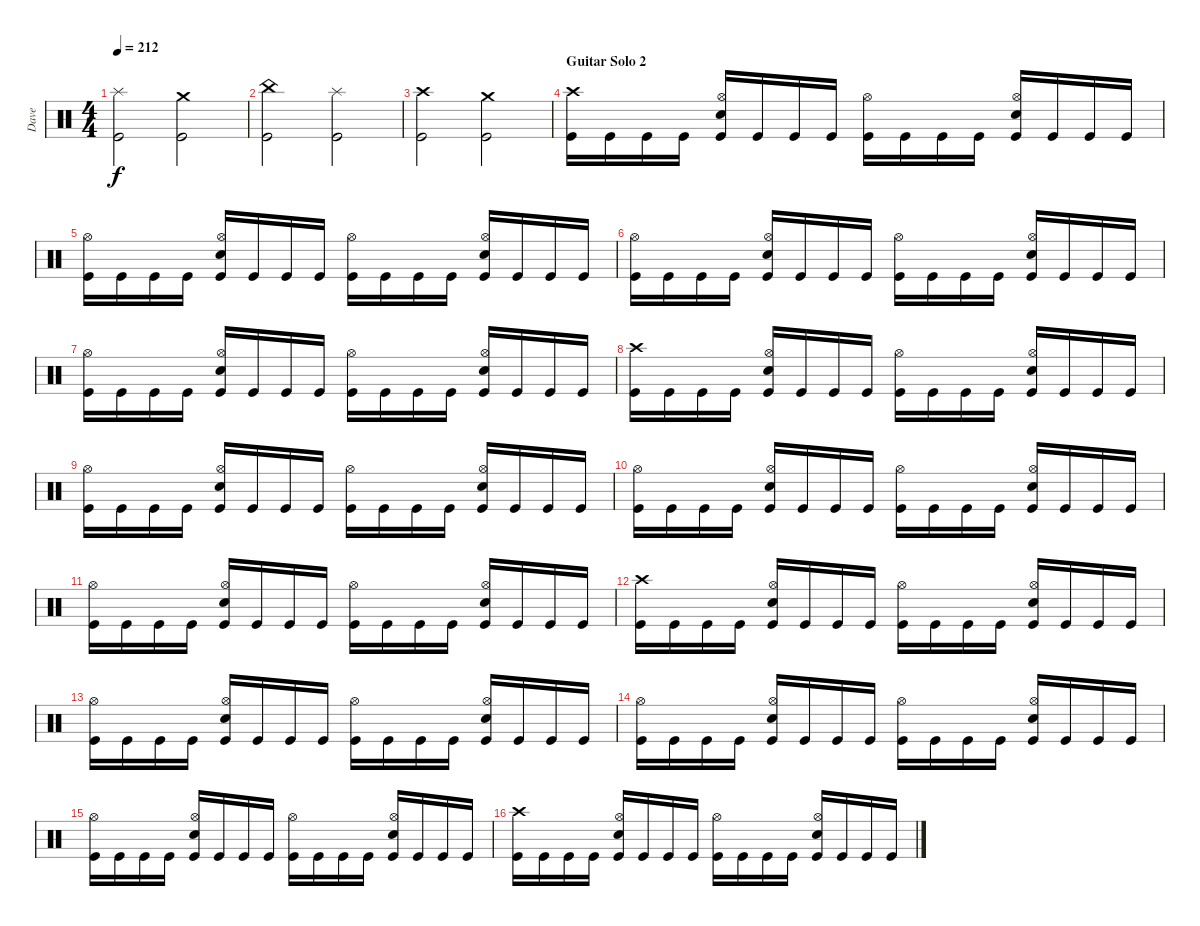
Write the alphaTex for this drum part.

\track ("Dave" "Dave") {instrument percussion}
\staff {score}
\articulation defaults
\ts (4 4)
\tempo 212
\clef neutral
\ks c
("Splash (hit)" "Kick (hit)").2{dy f} ("Crash medium (hit)" "Kick (hit)").2 |
("China (hit)" "Kick (hit)").2 ("Splash (hit)" "Kick (hit)").2 |
("Crash high (hit)" "Kick (hit)").2 ("Crash medium (hit)" "Kick (hit)").2 |
\section ("" "Guitar Solo 2")
("Crash high (hit)" "Kick (hit)").16 "Kick (hit)".16 "Kick (hit)".16 "Kick (hit)".16 ("Hi-Hat (open)" "Snare (hit) 2" "Kick (hit)").16 "Kick (hit)".16 "Kick (hit)".16 "Kick (hit)".16 ("Hi-Hat (open)" "Kick (hit)").16 "Kick (hit)".16 "Kick (hit)".16 "Kick (hit)".16 ("Hi-Hat (open)" "Snare (hit) 2" "Kick (hit)").16 "Kick (hit)".16 "Kick (hit)".16 "Kick (hit)".16 |
("Hi-Hat (open)" "Kick (hit)").16 "Kick (hit)".16 "Kick (hit)".16 "Kick (hit)".16 ("Hi-Hat (open)" "Snare (hit) 2" "Kick (hit)").16 "Kick (hit)".16 "Kick (hit)".16 "Kick (hit)".16 ("Hi-Hat (open)" "Kick (hit)").16 "Kick (hit)".16 "Kick (hit)".16 "Kick (hit)".16 ("Hi-Hat (open)" "Snare (hit) 2" "Kick (hit)").16 "Kick (hit)".16 "Kick (hit)".16 "Kick (hit)".16 |
("Hi-Hat (open)" "Kick (hit)").16 "Kick (hit)".16 "Kick (hit)".16 "Kick (hit)".16 ("Hi-Hat (open)" "Snare (hit) 2" "Kick (hit)").16 "Kick (hit)".16 "Kick (hit)".16 "Kick (hit)".16 ("Hi-Hat (open)" "Kick (hit)").16 "Kick (hit)".16 "Kick (hit)".16 "Kick (hit)".16 ("Hi-Hat (open)" "Snare (hit) 2" "Kick (hit)").16 "Kick (hit)".16 "Kick (hit)".16 "Kick (hit)".16 |
("Hi-Hat (open)" "Kick (hit)").16 "Kick (hit)".16 "Kick (hit)".16 "Kick (hit)".16 ("Hi-Hat (open)" "Snare (hit) 2" "Kick (hit)").16 "Kick (hit)".16 "Kick (hit)".16 "Kick (hit)".16 ("Hi-Hat (open)" "Kick (hit)").16 "Kick (hit)".16 "Kick (hit)".16 "Kick (hit)".16 ("Hi-Hat (open)" "Snare (hit) 2" "Kick (hit)").16 "Kick (hit)".16 "Kick (hit)".16 "Kick (hit)".16 |
("Crash high (hit)" "Kick (hit)").16 "Kick (hit)".16 "Kick (hit)".16 "Kick (hit)".16 ("Hi-Hat (open)" "Snare (hit) 2" "Kick (hit)").16 "Kick (hit)".16 "Kick (hit)".16 "Kick (hit)".16 ("Hi-Hat (open)" "Kick (hit)").16 "Kick (hit)".16 "Kick (hit)".16 "Kick (hit)".16 ("Hi-Hat (open)" "Snare (hit) 2" "Kick (hit)").16 "Kick (hit)".16 "Kick (hit)".16 "Kick (hit)".16 |
("Hi-Hat (open)" "Kick (hit)").16 "Kick (hit)".16 "Kick (hit)".16 "Kick (hit)".16 ("Hi-Hat (open)" "Snare (hit) 2" "Kick (hit)").16 "Kick (hit)".16 "Kick (hit)".16 "Kick (hit)".16 ("Hi-Hat (open)" "Kick (hit)").16 "Kick (hit)".16 "Kick (hit)".16 "Kick (hit)".16 ("Hi-Hat (open)" "Snare (hit) 2" "Kick (hit)").16 "Kick (hit)".16 "Kick (hit)".16 "Kick (hit)".16 |
("Hi-Hat (open)" "Kick (hit)").16 "Kick (hit)".16 "Kick (hit)".16 "Kick (hit)".16 ("Hi-Hat (open)" "Snare (hit) 2" "Kick (hit)").16 "Kick (hit)".16 "Kick (hit)".16 "Kick (hit)".16 ("Hi-Hat (open)" "Kick (hit)").16 "Kick (hit)".16 "Kick (hit)".16 "Kick (hit)".16 ("Hi-Hat (open)" "Snare (hit) 2" "Kick (hit)").16 "Kick (hit)".16 "Kick (hit)".16 "Kick (hit)".16 |
("Hi-Hat (open)" "Kick (hit)").16 "Kick (hit)".16 "Kick (hit)".16 "Kick (hit)".16 ("Hi-Hat (open)" "Snare (hit) 2" "Kick (hit)").16 "Kick (hit)".16 "Kick (hit)".16 "Kick (hit)".16 ("Hi-Hat (open)" "Kick (hit)").16 "Kick (hit)".16 "Kick (hit)".16 "Kick (hit)".16 ("Hi-Hat (open)" "Snare (hit) 2" "Kick (hit)").16 "Kick (hit)".16 "Kick (hit)".16 "Kick (hit)".16 |
("Crash high (hit)" "Kick (hit)").16 "Kick (hit)".16 "Kick (hit)".16 "Kick (hit)".16 ("Hi-Hat (open)" "Snare (hit) 2" "Kick (hit)").16 "Kick (hit)".16 "Kick (hit)".16 "Kick (hit)".16 ("Hi-Hat (open)" "Kick (hit)").16 "Kick (hit)".16 "Kick (hit)".16 "Kick (hit)".16 ("Hi-Hat (open)" "Snare (hit) 2" "Kick (hit)").16 "Kick (hit)".16 "Kick (hit)".16 "Kick (hit)".16 |
("Hi-Hat (open)" "Kick (hit)").16 "Kick (hit)".16 "Kick (hit)".16 "Kick (hit)".16 ("Hi-Hat (open)" "Snare (hit) 2" "Kick (hit)").16 "Kick (hit)".16 "Kick (hit)".16 "Kick (hit)".16 ("Hi-Hat (open)" "Kick (hit)").16 "Kick (hit)".16 "Kick (hit)".16 "Kick (hit)".16 ("Hi-Hat (open)" "Snare (hit) 2" "Kick (hit)").16 "Kick (hit)".16 "Kick (hit)".16 "Kick (hit)".16 |
("Hi-Hat (open)" "Kick (hit)").16 "Kick (hit)".16 "Kick (hit)".16 "Kick (hit)".16 ("Hi-Hat (open)" "Snare (hit) 2" "Kick (hit)").16 "Kick (hit)".16 "Kick (hit)".16 "Kick (hit)".16 ("Hi-Hat (open)" "Kick (hit)").16 "Kick (hit)".16 "Kick (hit)".16 "Kick (hit)".16 ("Hi-Hat (open)" "Snare (hit) 2" "Kick (hit)").16 "Kick (hit)".16 "Kick (hit)".16 "Kick (hit)".16 |
("Hi-Hat (open)" "Kick (hit)").16 "Kick (hit)".16 "Kick (hit)".16 "Kick (hit)".16 ("Hi-Hat (open)" "Snare (hit) 2" "Kick (hit)").16 "Kick (hit)".16 "Kick (hit)".16 "Kick (hit)".16 ("Hi-Hat (open)" "Kick (hit)").16 "Kick (hit)".16 "Kick (hit)".16 "Kick (hit)".16 ("Hi-Hat (open)" "Snare (hit) 2" "Kick (hit)").16 "Kick (hit)".16 "Kick (hit)".16 "Kick (hit)".16 |
("Crash high (hit)" "Kick (hit)").16 "Kick (hit)".16 "Kick (hit)".16 "Kick (hit)".16 ("Hi-Hat (open)" "Snare (hit) 2" "Kick (hit)").16 "Kick (hit)".16 "Kick (hit)".16 "Kick (hit)".16 ("Hi-Hat (open)" "Kick (hit)").16 "Kick (hit)".16 "Kick (hit)".16 "Kick (hit)".16 ("Hi-Hat (open)" "Snare (hit) 2" "Kick (hit)").16 "Kick (hit)".16 "Kick (hit)".16 "Kick (hit)".16
